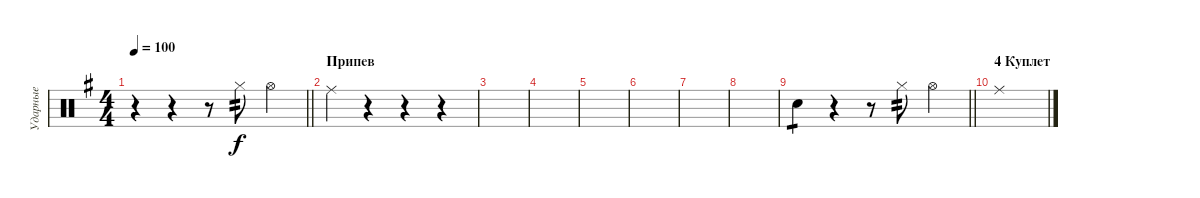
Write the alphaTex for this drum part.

\track ("Ударные" "Ударные") {instrument percussion}
\staff {score}
\articulation defaults
\ts (4 4)
\tempo 100
\clef neutral
\barLineRight lightlight
\ks eminor
r.4{dy f} r.4 r.8 "Hi-Hat (closed)".8{tp 2} "Hi-Hat (open)".4 |
\section ("" "Припев")
"Ride (middle)".4 r.4 r.4 r.4 |
|
|
|
|
|
|
\barLineRight lightlight "Snare (hit) 2".4{tp 1}
r.4 r.8 "Hi-Hat (closed)".8{tp 2} "Hi-Hat (open)".4 |
\section ("" "4 Куплет")
"Ride (middle)".1
